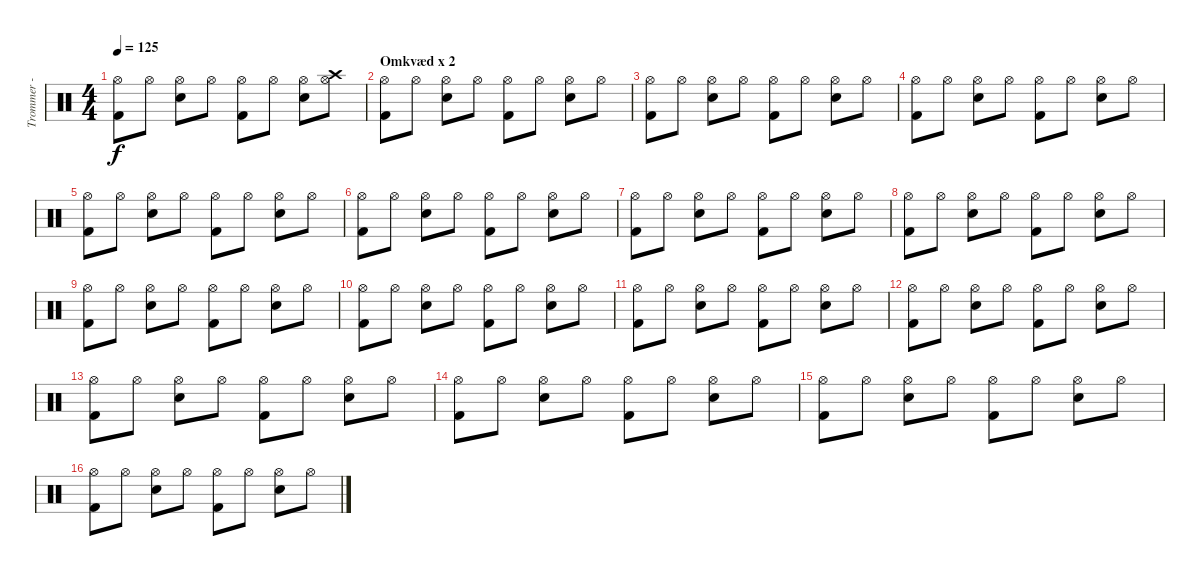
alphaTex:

\track ("Trommer - Alex" "Trommer - ") {instrument percussion}
\staff {score}
\articulation defaults
\ts (4 4)
\tempo 125
\clef neutral
\ks c
("Hi-Hat (open)" "Kick (hit) 2").8{dy f} "Hi-Hat (open)".8 ("Hi-Hat (open)" "Snare (hit) 2").8 "Hi-Hat (open)".8 ("Hi-Hat (open)" "Kick (hit) 2").8 "Hi-Hat (open)".8 ("Hi-Hat (open)" "Snare (hit) 2").8 ("Hi-Hat (open)" "Crash high (hit)").8 |
\section ("" "Omkvæd x 2")
("Hi-Hat (open)" "Kick (hit) 2").8 "Hi-Hat (open)".8 ("Hi-Hat (open)" "Snare (hit) 2").8 "Hi-Hat (open)".8 ("Hi-Hat (open)" "Kick (hit) 2").8 "Hi-Hat (open)".8 ("Hi-Hat (open)" "Snare (hit) 2").8 "Hi-Hat (open)".8 |
("Hi-Hat (open)" "Kick (hit) 2").8 "Hi-Hat (open)".8 ("Hi-Hat (open)" "Snare (hit) 2").8 "Hi-Hat (open)".8 ("Hi-Hat (open)" "Kick (hit) 2").8 "Hi-Hat (open)".8 ("Hi-Hat (open)" "Snare (hit) 2").8 "Hi-Hat (open)".8 |
("Hi-Hat (open)" "Kick (hit) 2").8 "Hi-Hat (open)".8 ("Hi-Hat (open)" "Snare (hit) 2").8 "Hi-Hat (open)".8 ("Hi-Hat (open)" "Kick (hit) 2").8 "Hi-Hat (open)".8 ("Hi-Hat (open)" "Snare (hit) 2").8 "Hi-Hat (open)".8 |
("Hi-Hat (open)" "Kick (hit) 2").8 "Hi-Hat (open)".8 ("Hi-Hat (open)" "Snare (hit) 2").8 "Hi-Hat (open)".8 ("Hi-Hat (open)" "Kick (hit) 2").8 "Hi-Hat (open)".8 ("Hi-Hat (open)" "Snare (hit) 2").8 "Hi-Hat (open)".8 |
("Hi-Hat (open)" "Kick (hit) 2").8 "Hi-Hat (open)".8 ("Hi-Hat (open)" "Snare (hit) 2").8 "Hi-Hat (open)".8 ("Hi-Hat (open)" "Kick (hit) 2").8 "Hi-Hat (open)".8 ("Hi-Hat (open)" "Snare (hit) 2").8 "Hi-Hat (open)".8 |
("Hi-Hat (open)" "Kick (hit) 2").8 "Hi-Hat (open)".8 ("Hi-Hat (open)" "Snare (hit) 2").8 "Hi-Hat (open)".8 ("Hi-Hat (open)" "Kick (hit) 2").8 "Hi-Hat (open)".8 ("Hi-Hat (open)" "Snare (hit) 2").8 "Hi-Hat (open)".8 |
("Hi-Hat (open)" "Kick (hit) 2").8 "Hi-Hat (open)".8 ("Hi-Hat (open)" "Snare (hit) 2").8 "Hi-Hat (open)".8 ("Hi-Hat (open)" "Kick (hit) 2").8 "Hi-Hat (open)".8 ("Hi-Hat (open)" "Snare (hit) 2").8 "Hi-Hat (open)".8 |
("Hi-Hat (open)" "Kick (hit) 2").8 "Hi-Hat (open)".8 ("Hi-Hat (open)" "Snare (hit) 2").8 "Hi-Hat (open)".8 ("Hi-Hat (open)" "Kick (hit) 2").8 "Hi-Hat (open)".8 ("Hi-Hat (open)" "Snare (hit) 2").8 "Hi-Hat (open)".8 |
("Hi-Hat (open)" "Kick (hit) 2").8 "Hi-Hat (open)".8 ("Hi-Hat (open)" "Snare (hit) 2").8 "Hi-Hat (open)".8 ("Hi-Hat (open)" "Kick (hit) 2").8 "Hi-Hat (open)".8 ("Hi-Hat (open)" "Snare (hit) 2").8 "Hi-Hat (open)".8 |
("Hi-Hat (open)" "Kick (hit) 2").8 "Hi-Hat (open)".8 ("Hi-Hat (open)" "Snare (hit) 2").8 "Hi-Hat (open)".8 ("Hi-Hat (open)" "Kick (hit) 2").8 "Hi-Hat (open)".8 ("Hi-Hat (open)" "Snare (hit) 2").8 "Hi-Hat (open)".8 |
("Hi-Hat (open)" "Kick (hit) 2").8 "Hi-Hat (open)".8 ("Hi-Hat (open)" "Snare (hit) 2").8 "Hi-Hat (open)".8 ("Hi-Hat (open)" "Kick (hit) 2").8 "Hi-Hat (open)".8 ("Hi-Hat (open)" "Snare (hit) 2").8 "Hi-Hat (open)".8 |
("Hi-Hat (open)" "Kick (hit) 2").8 "Hi-Hat (open)".8 ("Hi-Hat (open)" "Snare (hit) 2").8 "Hi-Hat (open)".8 ("Hi-Hat (open)" "Kick (hit) 2").8 "Hi-Hat (open)".8 ("Hi-Hat (open)" "Snare (hit) 2").8 "Hi-Hat (open)".8 |
("Hi-Hat (open)" "Kick (hit) 2").8 "Hi-Hat (open)".8 ("Hi-Hat (open)" "Snare (hit) 2").8 "Hi-Hat (open)".8 ("Hi-Hat (open)" "Kick (hit) 2").8 "Hi-Hat (open)".8 ("Hi-Hat (open)" "Snare (hit) 2").8 "Hi-Hat (open)".8 |
("Hi-Hat (open)" "Kick (hit) 2").8 "Hi-Hat (open)".8 ("Hi-Hat (open)" "Snare (hit) 2").8 "Hi-Hat (open)".8 ("Hi-Hat (open)" "Kick (hit) 2").8 "Hi-Hat (open)".8 ("Hi-Hat (open)" "Snare (hit) 2").8 "Hi-Hat (open)".8 |
("Hi-Hat (open)" "Kick (hit) 2").8 "Hi-Hat (open)".8 ("Hi-Hat (open)" "Snare (hit) 2").8 "Hi-Hat (open)".8 ("Hi-Hat (open)" "Kick (hit) 2").8 "Hi-Hat (open)".8 ("Hi-Hat (open)" "Snare (hit) 2").8 "Hi-Hat (open)".8
